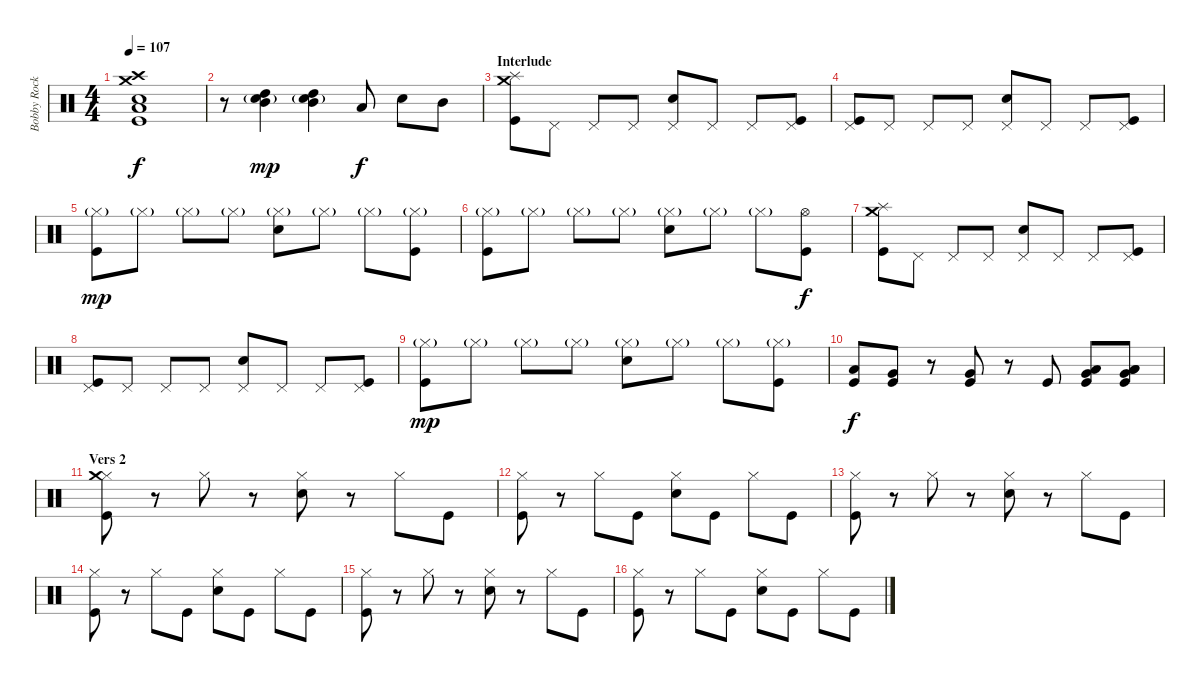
\track ("Bobby Rock - drums" "Bobby Rock") {instrument percussion}
\staff {score}
\articulation defaults
\ts (4 4)
\tempo 107
\clef neutral
\ks c
("Crash medium (hit)" "Crash high (hit)" "Snare (hit) 2" "Low Floor Tom (hit)" "Kick (hit)").1{dy f} |
r.8 ("Electric Snare (hit)"{g} "Mid Tom (hit)" "High Tom (hit)").4{dy mp} ("Electric Snare (hit)"{g} "Mid Tom (hit)" "High Tom (hit)").4 "Low Tom (hit)".8{dy f} "Snare (hit) 2".8 "Mid Tom (hit)".8 |
\section ("" "Interlude")
("Splash (hit)" "Crash medium (hit)" "Kick (hit)").8 "Pedal Hi-Hat (hit)".8 "Pedal Hi-Hat (hit)".8 "Pedal Hi-Hat (hit)".8 ("Pedal Hi-Hat (hit)" "Snare (hit) 2").8 "Pedal Hi-Hat (hit)".8 "Pedal Hi-Hat (hit)".8 ("Pedal Hi-Hat (hit)" "Kick (hit)").8 |
("Pedal Hi-Hat (hit)" "Kick (hit)").8 "Pedal Hi-Hat (hit)".8 "Pedal Hi-Hat (hit)".8 "Pedal Hi-Hat (hit)".8 ("Pedal Hi-Hat (hit)" "Snare (hit) 2").8 "Pedal Hi-Hat (hit)".8 "Pedal Hi-Hat (hit)".8 ("Pedal Hi-Hat (hit)" "Kick (hit)").8 |
("Hi-Hat (closed)"{g} "Kick (hit)").8{dy mp} "Hi-Hat (closed)"{g}.8 "Hi-Hat (closed)"{g}.8 "Hi-Hat (closed)"{g}.8 ("Hi-Hat (closed)"{g} "Snare (hit) 2").8 "Hi-Hat (closed)"{g}.8 "Hi-Hat (closed)"{g}.8 ("Hi-Hat (closed)"{g} "Kick (hit)").8 |
("Hi-Hat (closed)"{g} "Kick (hit)").8 "Hi-Hat (closed)"{g}.8 "Hi-Hat (closed)"{g}.8 "Hi-Hat (closed)"{g}.8 ("Hi-Hat (closed)"{g} "Snare (hit) 2").8 "Hi-Hat (closed)"{g}.8 "Hi-Hat (closed)"{g}.8 ("Hi-Hat (open)" "Kick (hit)").8{dy f} |
("Splash (hit)" "Crash medium (hit)" "Kick (hit)").8 "Pedal Hi-Hat (hit)".8 "Pedal Hi-Hat (hit)".8 "Pedal Hi-Hat (hit)".8 ("Pedal Hi-Hat (hit)" "Snare (hit) 2").8 "Pedal Hi-Hat (hit)".8 "Pedal Hi-Hat (hit)".8 ("Pedal Hi-Hat (hit)" "Kick (hit)").8 |
("Pedal Hi-Hat (hit)" "Kick (hit)").8 "Pedal Hi-Hat (hit)".8 "Pedal Hi-Hat (hit)".8 "Pedal Hi-Hat (hit)".8 ("Pedal Hi-Hat (hit)" "Snare (hit) 2").8 "Pedal Hi-Hat (hit)".8 "Pedal Hi-Hat (hit)".8 ("Pedal Hi-Hat (hit)" "Kick (hit)").8 |
("Hi-Hat (closed)"{g} "Kick (hit)").8{dy mp} "Hi-Hat (closed)"{g}.8 "Hi-Hat (closed)"{g}.8 "Hi-Hat (closed)"{g}.8 ("Hi-Hat (closed)"{g} "Snare (hit) 2").8 "Hi-Hat (closed)"{g}.8 "Hi-Hat (closed)"{g}.8 ("Hi-Hat (closed)"{g} "Kick (hit)").8 |
("Low Tom (hit)" "Kick (hit)").8{dy f} ("Very Low Tom (hit)" "Kick (hit)").8 r.8 ("Very Low Tom (hit)" "Kick (hit)").8 r.8 "Kick (hit)".8 ("Low Tom (hit)" "Very Low Tom (hit)" "Kick (hit)").8 ("Low Tom (hit)" "Very Low Tom (hit)" "Low Floor Tom (hit)" "Kick (hit)").8 |
\section ("" "Vers 2")
("Hi-Hat (closed)" "Crash medium (hit)" "Kick (hit)").8 r.8 "Hi-Hat (closed)".8 r.8 ("Hi-Hat (closed)" "Snare (hit) 2").8 r.8 "Hi-Hat (closed)".8 "Kick (hit)".8 |
("Hi-Hat (closed)" "Kick (hit)").8 r.8 "Hi-Hat (closed)".8 "Kick (hit)".8 ("Hi-Hat (closed)" "Snare (hit) 2").8 "Kick (hit)".8 "Hi-Hat (closed)".8 "Kick (hit)".8 |
("Hi-Hat (closed)" "Kick (hit)").8 r.8 "Hi-Hat (closed)".8 r.8 ("Hi-Hat (closed)" "Snare (hit) 2").8 r.8 "Hi-Hat (closed)".8 "Kick (hit)".8 |
("Hi-Hat (closed)" "Kick (hit)").8 r.8 "Hi-Hat (closed)".8 "Kick (hit)".8 ("Hi-Hat (closed)" "Snare (hit) 2").8 "Kick (hit)".8 "Hi-Hat (closed)".8 "Kick (hit)".8 |
("Hi-Hat (closed)" "Kick (hit)").8 r.8 "Hi-Hat (closed)".8 r.8 ("Hi-Hat (closed)" "Snare (hit) 2").8 r.8 "Hi-Hat (closed)".8 "Kick (hit)".8 |
("Hi-Hat (closed)" "Kick (hit)").8 r.8 "Hi-Hat (closed)".8 "Kick (hit)".8 ("Hi-Hat (closed)" "Snare (hit) 2").8 "Kick (hit)".8 "Hi-Hat (closed)".8 "Kick (hit)".8
